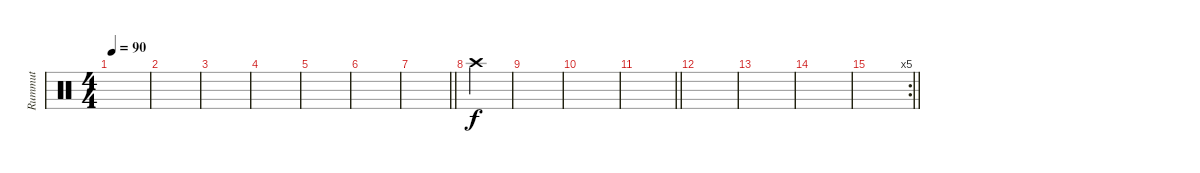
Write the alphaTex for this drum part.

\track ("Rummut" "Rummut") {instrument percussion}
\staff {score}
\articulation defaults
\ts (4 4)
\tempo 90
\clef neutral
\ks c
|
|
|
|
|
|
\barLineRight lightlight
|
"Crash high (hit)".4 |
|
|
\barLineRight lightlight
|
|
|
|
\rc 5
\barLineRight lightlight
